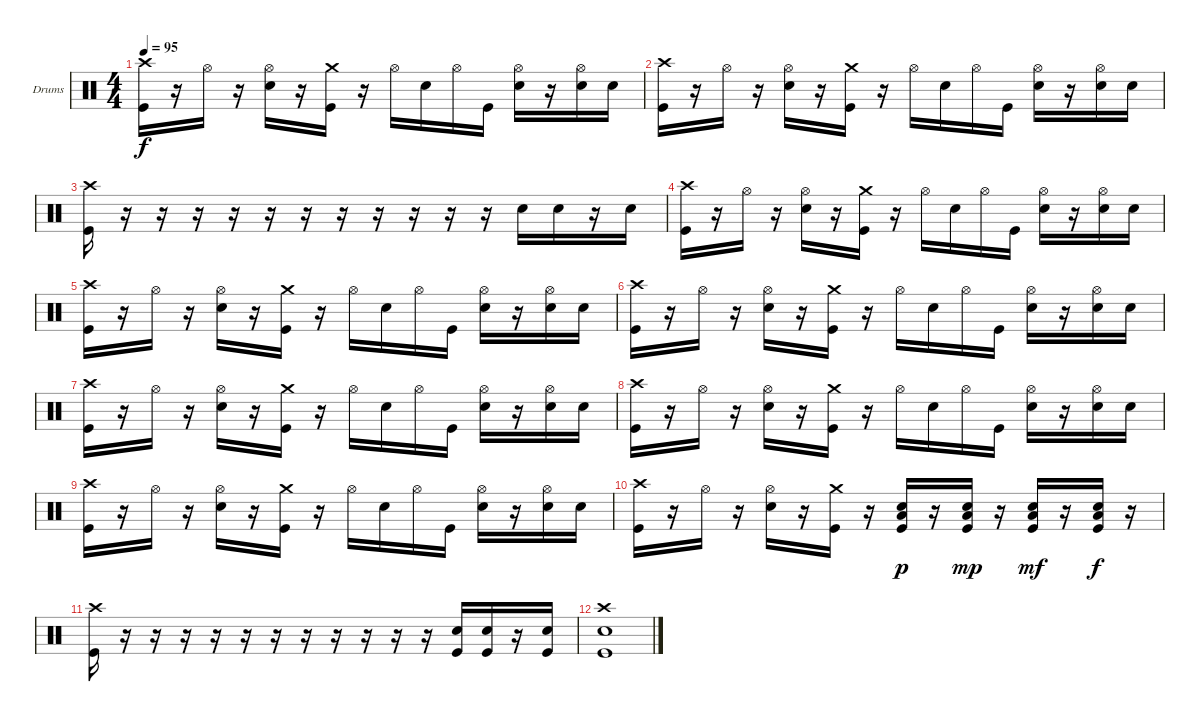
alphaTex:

\bracketExtendMode groupsimilarinstruments
\firstSystemTrackNameOrientation horizontal
\otherSystemsTrackNameOrientation horizontal
\track ("Drumkit" "Drums") {instrument percussion}
\staff {score}
\articulation defaults
\ts (4 4)
\tempo 95
\clef neutral
\ks c
("Crash high (hit)" "Kick (hit)").16{dy f} r.16 "Hi-Hat (open)".16 r.16 ("Hi-Hat (open)" "Snare (hit) 2").16 r.16 ("Crash medium (hit)" "Kick (hit)").16 r.16 "Hi-Hat (open)".16 "Snare (hit) 2".16 "Hi-Hat (open)".16 "Kick (hit)".16 ("Hi-Hat (open)" "Snare (hit) 2").16 r.16 ("Hi-Hat (open)" "Snare (hit) 2").16 "Snare (hit) 2".16 |
("Crash high (hit)" "Kick (hit)").16 r.16 "Hi-Hat (open)".16 r.16 ("Hi-Hat (open)" "Snare (hit) 2").16 r.16 ("Crash medium (hit)" "Kick (hit)").16 r.16 "Hi-Hat (open)".16 "Snare (hit) 2".16 "Hi-Hat (open)".16 "Kick (hit)".16 ("Hi-Hat (open)" "Snare (hit) 2").16 r.16 ("Hi-Hat (open)" "Snare (hit) 2").16 "Snare (hit) 2".16 |
("Crash high (hit)" "Kick (hit)").16 r.16 r.16 r.16 r.16 r.16 r.16 r.16 r.16 r.16 r.16 r.16 "Snare (hit) 2".16 "Snare (hit) 2".16 r.16 "Snare (hit) 2".16 |
("Crash high (hit)" "Kick (hit)").16 r.16 "Hi-Hat (open)".16 r.16 ("Hi-Hat (open)" "Snare (hit) 2").16 r.16 ("Crash medium (hit)" "Kick (hit)").16 r.16 "Hi-Hat (open)".16 "Snare (hit) 2".16 "Hi-Hat (open)".16 "Kick (hit)".16 ("Hi-Hat (open)" "Snare (hit) 2").16 r.16 ("Hi-Hat (open)" "Snare (hit) 2").16 "Snare (hit) 2".16 |
("Crash high (hit)" "Kick (hit)").16 r.16 "Hi-Hat (open)".16 r.16 ("Hi-Hat (open)" "Snare (hit) 2").16 r.16 ("Crash medium (hit)" "Kick (hit)").16 r.16 "Hi-Hat (open)".16 "Snare (hit) 2".16 "Hi-Hat (open)".16 "Kick (hit)".16 ("Hi-Hat (open)" "Snare (hit) 2").16 r.16 ("Hi-Hat (open)" "Snare (hit) 2").16 "Snare (hit) 2".16 |
("Crash high (hit)" "Kick (hit)").16 r.16 "Hi-Hat (open)".16 r.16 ("Hi-Hat (open)" "Snare (hit) 2").16 r.16 ("Crash medium (hit)" "Kick (hit)").16 r.16 "Hi-Hat (open)".16 "Snare (hit) 2".16 "Hi-Hat (open)".16 "Kick (hit)".16 ("Hi-Hat (open)" "Snare (hit) 2").16 r.16 ("Hi-Hat (open)" "Snare (hit) 2").16 "Snare (hit) 2".16 |
("Crash high (hit)" "Kick (hit)").16 r.16 "Hi-Hat (open)".16 r.16 ("Hi-Hat (open)" "Snare (hit) 2").16 r.16 ("Crash medium (hit)" "Kick (hit)").16 r.16 "Hi-Hat (open)".16 "Snare (hit) 2".16 "Hi-Hat (open)".16 "Kick (hit)".16 ("Hi-Hat (open)" "Snare (hit) 2").16 r.16 ("Hi-Hat (open)" "Snare (hit) 2").16 "Snare (hit) 2".16 |
("Crash high (hit)" "Kick (hit)").16 r.16 "Hi-Hat (open)".16 r.16 ("Hi-Hat (open)" "Snare (hit) 2").16 r.16 ("Crash medium (hit)" "Kick (hit)").16 r.16 "Hi-Hat (open)".16 "Snare (hit) 2".16 "Hi-Hat (open)".16 "Kick (hit)".16 ("Hi-Hat (open)" "Snare (hit) 2").16 r.16 ("Hi-Hat (open)" "Snare (hit) 2").16 "Snare (hit) 2".16 |
("Crash high (hit)" "Kick (hit)").16 r.16 "Hi-Hat (open)".16 r.16 ("Hi-Hat (open)" "Snare (hit) 2").16 r.16 ("Crash medium (hit)" "Kick (hit)").16 r.16 "Hi-Hat (open)".16 "Snare (hit) 2".16 "Hi-Hat (open)".16 "Kick (hit)".16 ("Hi-Hat (open)" "Snare (hit) 2").16 r.16 ("Hi-Hat (open)" "Snare (hit) 2").16 "Snare (hit) 2".16 |
("Crash high (hit)" "Kick (hit)").16 r.16 "Hi-Hat (open)".16 r.16 ("Hi-Hat (open)" "Snare (hit) 2").16 r.16 ("Crash medium (hit)" "Kick (hit)").16 r.16 ("Low Tom (hit)" "Snare (hit) 2" "Kick (hit)").16{dy p} r.16 ("Low Tom (hit)" "Snare (hit) 2" "Kick (hit)").16{dy mp} r.16 ("Low Tom (hit)" "Snare (hit) 2" "Kick (hit)").16{dy mf} r.16 ("Low Tom (hit)" "Snare (hit) 2" "Kick (hit)").16{dy f} r.16 |
("Crash high (hit)" "Kick (hit)").16 r.16 r.16 r.16 r.16 r.16 r.16 r.16 r.16 r.16 r.16 r.16 ("Snare (hit) 2" "Kick (hit)").16 ("Snare (hit) 2" "Kick (hit)").16 r.16 ("Snare (hit) 2" "Kick (hit)").16 |
("Crash high (hit)" "Snare (hit) 2" "Kick (hit)").1
